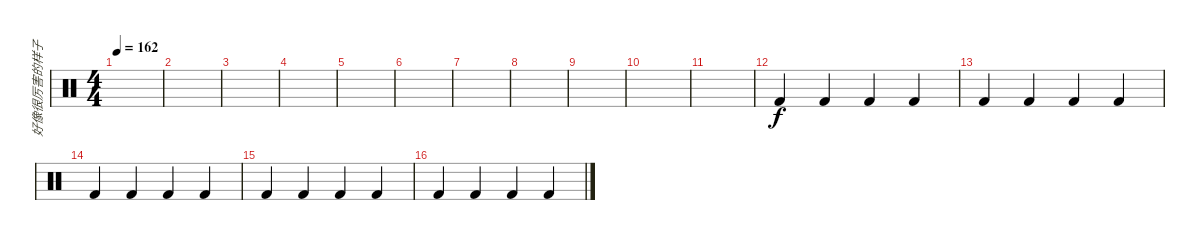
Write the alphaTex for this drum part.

\track ("好像很厉害的样子" "好像很厉害的样子") {instrument percussion}
\staff {score}
\articulation defaults
\ts (4 4)
\tempo 162
\clef neutral
\ks c
|
|
|
|
|
|
|
|
|
|
|
"Kick (hit) 2".4 "Kick (hit) 2".4 "Kick (hit) 2".4 "Kick (hit) 2".4 |
"Kick (hit) 2".4 "Kick (hit) 2".4 "Kick (hit) 2".4 "Kick (hit) 2".4 |
"Kick (hit) 2".4 "Kick (hit) 2".4 "Kick (hit) 2".4 "Kick (hit) 2".4 |
"Kick (hit) 2".4 "Kick (hit) 2".4 "Kick (hit) 2".4 "Kick (hit) 2".4 |
"Kick (hit) 2".4 "Kick (hit) 2".4 "Kick (hit) 2".4 "Kick (hit) 2".4
